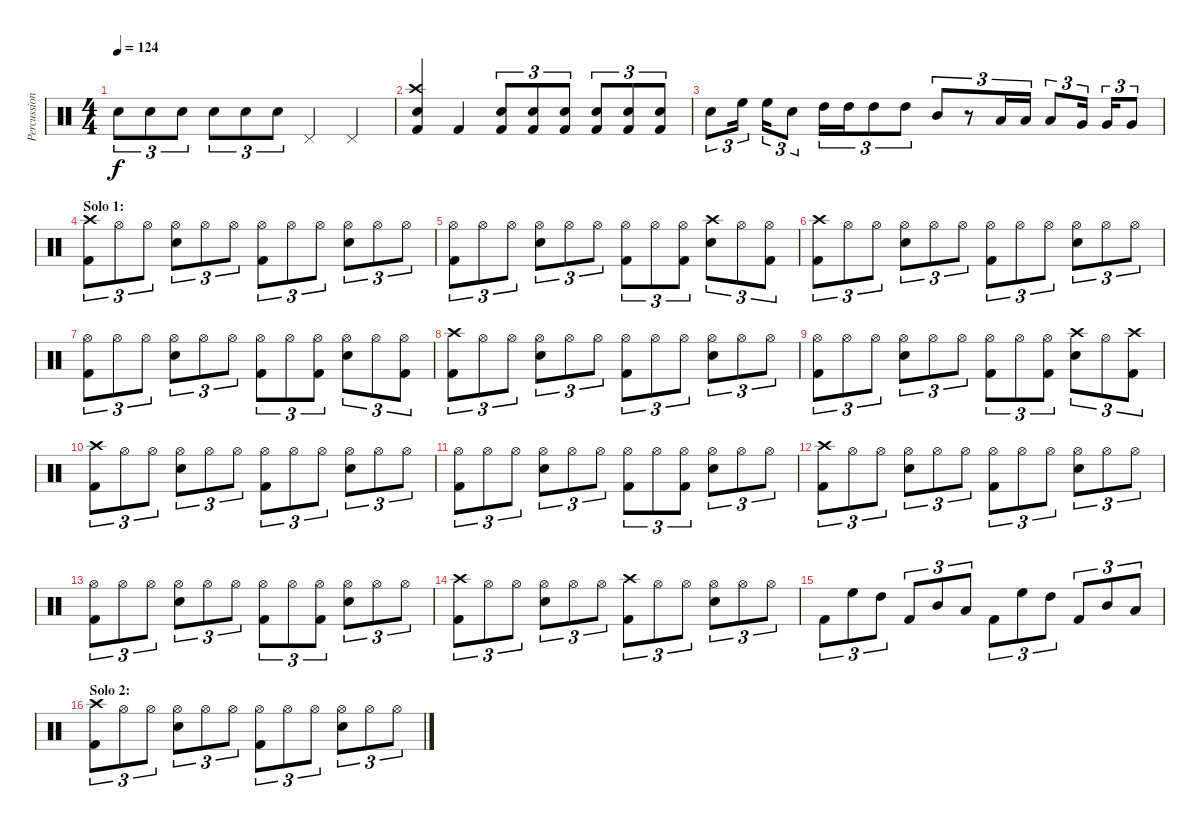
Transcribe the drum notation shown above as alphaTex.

\track ("Percussion" "Percussion") {instrument percussion}
\staff {score}
\articulation defaults
\ts (4 4)
\tempo 124
\clef neutral
\ks c "Snare (hit) 2".8{tu (3 2) dy f} "Snare (hit) 2".8{tu (3 2)} "Snare (hit) 2".8{tu (3 2)} "Snare (hit) 2".8{tu (3 2)} "Snare (hit) 2".8{tu (3 2)} "Snare (hit) 2".8{tu (3 2)} "Pedal Hi-Hat (hit)".4 "Pedal Hi-Hat (hit)".4
|
("Crash high (hit)" "Snare (hit) 2" "Kick (hit) 2").4 "Kick (hit) 2".4 ("Snare (hit) 2" "Kick (hit) 2").8{tu (3 2)} ("Snare (hit) 2" "Kick (hit) 2").8{tu (3 2)} ("Snare (hit) 2" "Kick (hit) 2").8{tu (3 2)} ("Snare (hit) 2" "Kick (hit) 2").8{tu (3 2)} ("Snare (hit) 2" "Kick (hit) 2").8{tu (3 2)} ("Snare (hit) 2" "Kick (hit) 2").8{tu (3 2)} |
"Snare (hit) 2".8{tu (3 2)} "High Floor Tom (hit)".16{tu (3 2)} "High Floor Tom (hit)".16{tu (3 2)} "Snare (hit) 2".8{tu (3 2)} "High Tom (hit)".16{tu (3 2)} "High Tom (hit)".16{tu (3 2)} "High Tom (hit)".8{tu (3 2)} "High Tom (hit)".8{tu (3 2)} "Mid Tom (hit)".8{tu (3 2)} r.8{tu (3 2)} "Low Tom (hit)".16{tu (3 2)} "Low Tom (hit)".16{tu (3 2)} "Low Tom (hit)".8{tu (3 2)} "Very Low Tom (hit)".16{tu (3 2)} "Very Low Tom (hit)".16{tu (3 2)} "Very Low Tom (hit)".8{tu (3 2)} |
\section ("" "Solo 1:")
("Crash high (hit)" "Kick (hit) 2").8{tu (3 2)} "Hi-Hat (open)".8{tu (3 2)} "Hi-Hat (open)".8{tu (3 2)} ("Hi-Hat (open)" "Snare (hit) 2").8{tu (3 2)} "Hi-Hat (open)".8{tu (3 2)} "Hi-Hat (open)".8{tu (3 2)} ("Hi-Hat (open)" "Kick (hit) 2").8{tu (3 2)} "Hi-Hat (open)".8{tu (3 2)} "Hi-Hat (open)".8{tu (3 2)} ("Hi-Hat (open)" "Snare (hit) 2").8{tu (3 2)} "Hi-Hat (open)".8{tu (3 2)} "Hi-Hat (open)".8{tu (3 2)} |
("Hi-Hat (open)" "Kick (hit) 2").8{tu (3 2)} "Hi-Hat (open)".8{tu (3 2)} "Hi-Hat (open)".8{tu (3 2)} ("Hi-Hat (open)" "Snare (hit) 2").8{tu (3 2)} "Hi-Hat (open)".8{tu (3 2)} "Hi-Hat (open)".8{tu (3 2)} ("Hi-Hat (open)" "Kick (hit) 2").8{tu (3 2)} "Hi-Hat (open)".8{tu (3 2)} ("Hi-Hat (open)" "Kick (hit) 2").8{tu (3 2)} ("Crash high (hit)" "Snare (hit) 2").8{tu (3 2)} "Hi-Hat (open)".8{tu (3 2)} ("Hi-Hat (open)" "Kick (hit) 2").8{tu (3 2)} |
("Crash high (hit)" "Kick (hit) 2").8{tu (3 2)} "Hi-Hat (open)".8{tu (3 2)} "Hi-Hat (open)".8{tu (3 2)} ("Hi-Hat (open)" "Snare (hit) 2").8{tu (3 2)} "Hi-Hat (open)".8{tu (3 2)} "Hi-Hat (open)".8{tu (3 2)} ("Hi-Hat (open)" "Kick (hit) 2").8{tu (3 2)} "Hi-Hat (open)".8{tu (3 2)} "Hi-Hat (open)".8{tu (3 2)} ("Hi-Hat (open)" "Snare (hit) 2").8{tu (3 2)} "Hi-Hat (open)".8{tu (3 2)} "Hi-Hat (open)".8{tu (3 2)} |
("Hi-Hat (open)" "Kick (hit) 2").8{tu (3 2)} "Hi-Hat (open)".8{tu (3 2)} "Hi-Hat (open)".8{tu (3 2)} ("Hi-Hat (open)" "Snare (hit) 2").8{tu (3 2)} "Hi-Hat (open)".8{tu (3 2)} "Hi-Hat (open)".8{tu (3 2)} ("Hi-Hat (open)" "Kick (hit) 2").8{tu (3 2)} "Hi-Hat (open)".8{tu (3 2)} ("Hi-Hat (open)" "Kick (hit) 2").8{tu (3 2)} ("Hi-Hat (open)" "Snare (hit) 2").8{tu (3 2)} "Hi-Hat (open)".8{tu (3 2)} ("Hi-Hat (open)" "Kick (hit) 2").8{tu (3 2)} |
("Crash high (hit)" "Kick (hit) 2").8{tu (3 2)} "Hi-Hat (open)".8{tu (3 2)} "Hi-Hat (open)".8{tu (3 2)} ("Hi-Hat (open)" "Snare (hit) 2").8{tu (3 2)} "Hi-Hat (open)".8{tu (3 2)} "Hi-Hat (open)".8{tu (3 2)} ("Hi-Hat (open)" "Kick (hit) 2").8{tu (3 2)} "Hi-Hat (open)".8{tu (3 2)} "Hi-Hat (open)".8{tu (3 2)} ("Hi-Hat (open)" "Snare (hit) 2").8{tu (3 2)} "Hi-Hat (open)".8{tu (3 2)} "Hi-Hat (open)".8{tu (3 2)} |
("Hi-Hat (open)" "Kick (hit) 2").8{tu (3 2)} "Hi-Hat (open)".8{tu (3 2)} "Hi-Hat (open)".8{tu (3 2)} ("Hi-Hat (open)" "Snare (hit) 2").8{tu (3 2)} "Hi-Hat (open)".8{tu (3 2)} "Hi-Hat (open)".8{tu (3 2)} ("Hi-Hat (open)" "Kick (hit) 2").8{tu (3 2)} "Hi-Hat (open)".8{tu (3 2)} ("Hi-Hat (open)" "Kick (hit) 2").8{tu (3 2)} ("Crash high (hit)" "Snare (hit) 2").8{tu (3 2)} "Hi-Hat (open)".8{tu (3 2)} ("Crash high (hit)" "Kick (hit) 2").8{tu (3 2)} |
("Crash high (hit)" "Kick (hit) 2").8{tu (3 2)} "Hi-Hat (open)".8{tu (3 2)} "Hi-Hat (open)".8{tu (3 2)} ("Hi-Hat (open)" "Snare (hit) 2").8{tu (3 2)} "Hi-Hat (open)".8{tu (3 2)} "Hi-Hat (open)".8{tu (3 2)} ("Hi-Hat (open)" "Kick (hit) 2").8{tu (3 2)} "Hi-Hat (open)".8{tu (3 2)} "Hi-Hat (open)".8{tu (3 2)} ("Hi-Hat (open)" "Snare (hit) 2").8{tu (3 2)} "Hi-Hat (open)".8{tu (3 2)} "Hi-Hat (open)".8{tu (3 2)} |
("Hi-Hat (open)" "Kick (hit) 2").8{tu (3 2)} "Hi-Hat (open)".8{tu (3 2)} "Hi-Hat (open)".8{tu (3 2)} ("Hi-Hat (open)" "Snare (hit) 2").8{tu (3 2)} "Hi-Hat (open)".8{tu (3 2)} "Hi-Hat (open)".8{tu (3 2)} ("Hi-Hat (open)" "Kick (hit) 2").8{tu (3 2)} "Hi-Hat (open)".8{tu (3 2)} ("Hi-Hat (open)" "Kick (hit) 2").8{tu (3 2)} ("Hi-Hat (open)" "Snare (hit) 2").8{tu (3 2)} "Hi-Hat (open)".8{tu (3 2)} "Hi-Hat (open)".8{tu (3 2)} |
("Crash high (hit)" "Kick (hit) 2").8{tu (3 2)} "Hi-Hat (open)".8{tu (3 2)} "Hi-Hat (open)".8{tu (3 2)} ("Hi-Hat (open)" "Snare (hit) 2").8{tu (3 2)} "Hi-Hat (open)".8{tu (3 2)} "Hi-Hat (open)".8{tu (3 2)} ("Hi-Hat (open)" "Kick (hit) 2").8{tu (3 2)} "Hi-Hat (open)".8{tu (3 2)} "Hi-Hat (open)".8{tu (3 2)} ("Hi-Hat (open)" "Snare (hit) 2").8{tu (3 2)} "Hi-Hat (open)".8{tu (3 2)} "Hi-Hat (open)".8{tu (3 2)} |
("Hi-Hat (open)" "Kick (hit) 2").8{tu (3 2)} "Hi-Hat (open)".8{tu (3 2)} "Hi-Hat (open)".8{tu (3 2)} ("Hi-Hat (open)" "Snare (hit) 2").8{tu (3 2)} "Hi-Hat (open)".8{tu (3 2)} "Hi-Hat (open)".8{tu (3 2)} ("Hi-Hat (open)" "Kick (hit) 2").8{tu (3 2)} "Hi-Hat (open)".8{tu (3 2)} ("Hi-Hat (open)" "Kick (hit) 2").8{tu (3 2)} ("Hi-Hat (open)" "Snare (hit) 2").8{tu (3 2)} "Hi-Hat (open)".8{tu (3 2)} "Hi-Hat (open)".8{tu (3 2)} |
("Crash high (hit)" "Kick (hit) 2").8{tu (3 2)} "Hi-Hat (open)".8{tu (3 2)} "Hi-Hat (open)".8{tu (3 2)} ("Hi-Hat (open)" "Snare (hit) 2").8{tu (3 2)} "Hi-Hat (open)".8{tu (3 2)} "Hi-Hat (open)".8{tu (3 2)} ("Crash high (hit)" "Kick (hit) 2").8{tu (3 2)} "Hi-Hat (open)".8{tu (3 2)} "Hi-Hat (open)".8{tu (3 2)} ("Hi-Hat (open)" "Snare (hit) 2").8{tu (3 2)} "Hi-Hat (open)".8{tu (3 2)} "Hi-Hat (open)".8{tu (3 2)} |
"Kick (hit) 2".8{tu (3 2)} "High Floor Tom (hit)".8{tu (3 2)} "High Tom (hit)".8{tu (3 2)} "Kick (hit) 2".8{tu (3 2)} "Mid Tom (hit)".8{tu (3 2)} "Low Tom (hit)".8{tu (3 2)} "Kick (hit) 2".8{tu (3 2)} "High Floor Tom (hit)".8{tu (3 2)} "High Tom (hit)".8{tu (3 2)} "Kick (hit) 2".8{tu (3 2)} "Mid Tom (hit)".8{tu (3 2)} "Low Tom (hit)".8{tu (3 2)} |
\section ("" "Solo 2:")
("Crash high (hit)" "Kick (hit) 2").8{tu (3 2)} "Hi-Hat (open)".8{tu (3 2)} "Hi-Hat (open)".8{tu (3 2)} ("Hi-Hat (open)" "Snare (hit) 2").8{tu (3 2)} "Hi-Hat (open)".8{tu (3 2)} "Hi-Hat (open)".8{tu (3 2)} ("Hi-Hat (open)" "Kick (hit) 2").8{tu (3 2)} "Hi-Hat (open)".8{tu (3 2)} "Hi-Hat (open)".8{tu (3 2)} ("Hi-Hat (open)" "Snare (hit) 2").8{tu (3 2)} "Hi-Hat (open)".8{tu (3 2)} "Hi-Hat (open)".8{tu (3 2)}
